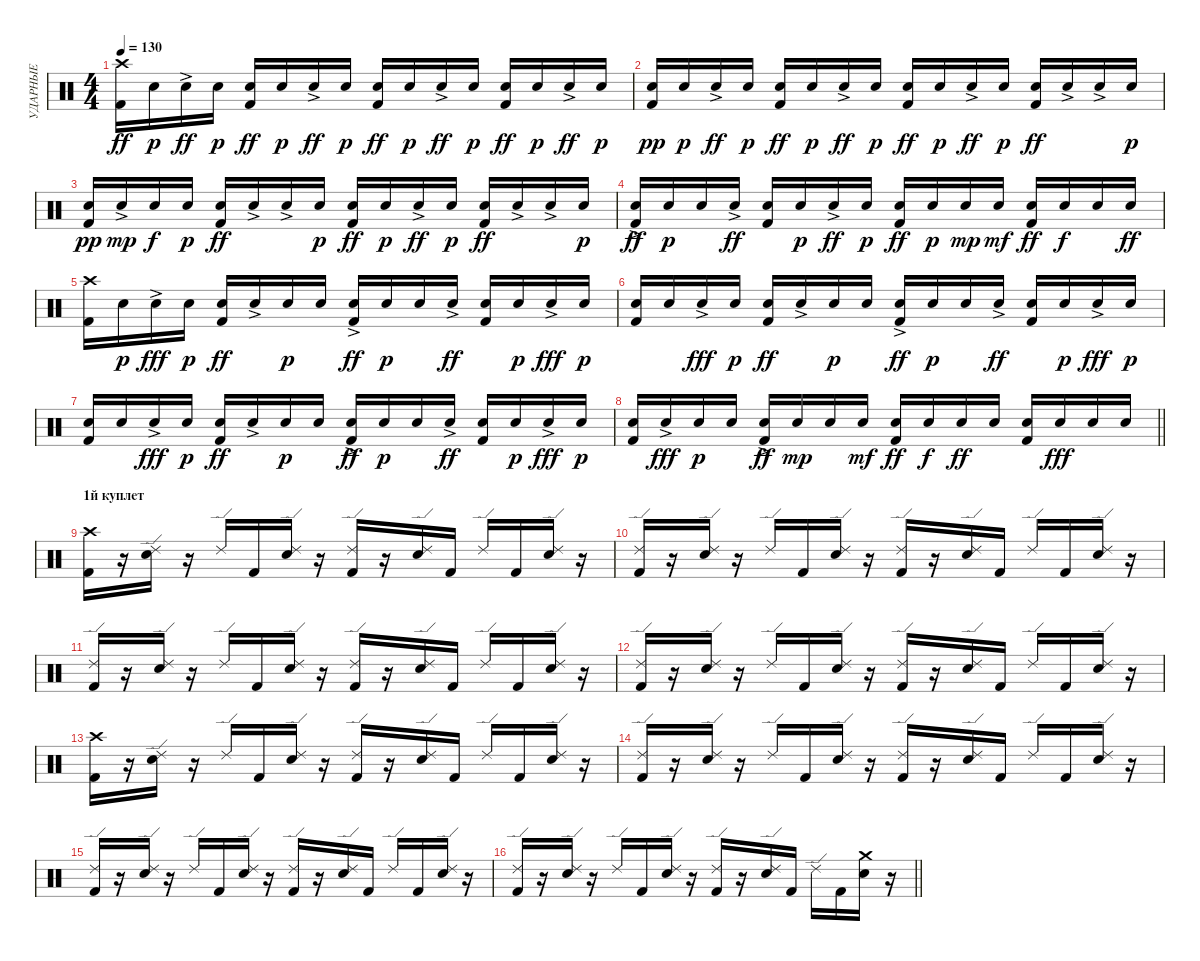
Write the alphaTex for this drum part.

\track ("УДАРНЫЕ" "УДАРНЫЕ") {instrument percussion}
\staff {score}
\articulation defaults
\ts (4 4)
\tempo 130
\clef neutral
\ks c
("Kick (hit) 2" "Crash high (hit)").16{dy ff} "Snare (hit) 2".16{dy p} "Snare (hit) 2"{ac}.16{dy ff} "Snare (hit) 2".16{dy p} ("Snare (hit) 2" "Kick (hit) 2").16{dy ff} "Snare (hit) 2".16{dy p} "Snare (hit) 2"{ac}.16{dy ff} "Snare (hit) 2".16{dy p} ("Snare (hit) 2" "Kick (hit) 2").16{dy ff} "Snare (hit) 2".16{dy p} "Snare (hit) 2"{ac}.16{dy ff} "Snare (hit) 2".16{dy p} ("Snare (hit) 2" "Kick (hit) 2").16{dy ff} "Snare (hit) 2".16{dy p} "Snare (hit) 2"{ac}.16{dy ff} "Snare (hit) 2".16{dy p} |
("Kick (hit) 2" "Snare (hit) 2").16{dy pp} "Snare (hit) 2".16{dy p} "Snare (hit) 2"{ac}.16{dy ff} "Snare (hit) 2".16{dy p} ("Snare (hit) 2" "Kick (hit) 2").16{dy ff} "Snare (hit) 2".16{dy p} "Snare (hit) 2"{ac}.16{dy ff} "Snare (hit) 2".16{dy p} ("Snare (hit) 2" "Kick (hit) 2").16{dy ff} "Snare (hit) 2".16{dy p} "Snare (hit) 2"{ac}.16{dy ff} "Snare (hit) 2".16{dy p} ("Snare (hit) 2" "Kick (hit) 2").16{dy ff} "Snare (hit) 2"{ac}.16 "Snare (hit) 2"{ac}.16 "Snare (hit) 2".16{dy p} |
("Kick (hit) 2" "Snare (hit) 2").16{dy pp} "Snare (hit) 2"{ac}.16{dy mp} "Snare (hit) 2".16{dy f} "Snare (hit) 2".16{dy p} ("Snare (hit) 2" "Kick (hit) 2").16{dy ff} "Snare (hit) 2"{ac}.16 "Snare (hit) 2"{ac}.16 "Snare (hit) 2".16{dy p} ("Snare (hit) 2" "Kick (hit) 2").16{dy ff} "Snare (hit) 2".16{dy p} "Snare (hit) 2"{ac}.16{dy ff} "Snare (hit) 2".16{dy p} ("Snare (hit) 2" "Kick (hit) 2").16{dy ff} "Snare (hit) 2"{ac}.16 "Snare (hit) 2"{ac}.16 "Snare (hit) 2".16{dy p} |
("Kick (hit) 2" "Snare (hit) 2"{ac}).16{dy ff} "Snare (hit) 2".16{dy p} "Snare (hit) 2".16 "Snare (hit) 2"{ac}.16{dy ff} ("Snare (hit) 2" "Kick (hit) 2").16 "Snare (hit) 2".16{dy p} "Snare (hit) 2"{ac}.16{dy ff} "Snare (hit) 2".16{dy p} ("Snare (hit) 2" "Kick (hit) 2").16{dy ff} "Snare (hit) 2".16{dy p} "Snare (hit) 2".16{dy mp} "Snare (hit) 2".16{dy mf} ("Snare (hit) 2" "Kick (hit) 2").16{dy ff} "Snare (hit) 2".16{dy f} "Snare (hit) 2".16 "Snare (hit) 2".16{dy ff} |
("Kick (hit) 2" "Crash high (hit)").16 "Snare (hit) 2".16{dy p} "Snare (hit) 2"{ac}.16{dy fff} "Snare (hit) 2".16{dy p} ("Snare (hit) 2" "Kick (hit) 2").16{dy ff} "Snare (hit) 2"{ac}.16 "Snare (hit) 2".16{dy p} "Snare (hit) 2".16 ("Snare (hit) 2"{ac} "Kick (hit) 2").16{dy ff} "Snare (hit) 2".16{dy p} "Snare (hit) 2".16 "Snare (hit) 2"{ac}.16{dy ff} ("Snare (hit) 2" "Kick (hit) 2").16 "Snare (hit) 2".16{dy p} "Snare (hit) 2"{ac}.16{dy fff} "Snare (hit) 2".16{dy p} |
("Kick (hit) 2" "Snare (hit) 2").16 "Snare (hit) 2".16 "Snare (hit) 2"{ac}.16{dy fff} "Snare (hit) 2".16{dy p} ("Snare (hit) 2" "Kick (hit) 2").16{dy ff} "Snare (hit) 2"{ac}.16 "Snare (hit) 2".16{dy p} "Snare (hit) 2".16 ("Snare (hit) 2"{ac} "Kick (hit) 2").16{dy ff} "Snare (hit) 2".16{dy p} "Snare (hit) 2".16 "Snare (hit) 2"{ac}.16{dy ff} ("Snare (hit) 2" "Kick (hit) 2").16 "Snare (hit) 2".16{dy p} "Snare (hit) 2"{ac}.16{dy fff} "Snare (hit) 2".16{dy p} |
("Kick (hit) 2" "Snare (hit) 2").16 "Snare (hit) 2".16 "Snare (hit) 2"{ac}.16{dy fff} "Snare (hit) 2".16{dy p} ("Snare (hit) 2" "Kick (hit) 2").16{dy ff} "Snare (hit) 2"{ac}.16 "Snare (hit) 2".16{dy p} "Snare (hit) 2".16 ("Snare (hit) 2"{ac} "Kick (hit) 2").16{dy ff} "Snare (hit) 2".16{dy p} "Snare (hit) 2".16 "Snare (hit) 2"{ac}.16{dy ff} ("Snare (hit) 2" "Kick (hit) 2").16 "Snare (hit) 2".16{dy p} "Snare (hit) 2"{ac}.16{dy fff} "Snare (hit) 2".16{dy p} |
\barLineRight lightlight
("Kick (hit) 2" "Snare (hit) 2").16 "Snare (hit) 2"{ac}.16{dy fff} "Snare (hit) 2".16{dy p} "Snare (hit) 2".16 ("Snare (hit) 2"{ac} "Kick (hit) 2").16{dy ff} "Snare (hit) 2".16{dy mp} "Snare (hit) 2".16 "Snare (hit) 2".16{dy mf} ("Snare (hit) 2" "Kick (hit) 2").16{dy ff} "Snare (hit) 2".16{dy f} "Snare (hit) 2".16{dy ff} "Snare (hit) 2".16 ("Snare (hit) 2" "Kick (hit) 2").16 "Snare (hit) 2".16{dy fff} "Snare (hit) 2".16 "Snare (hit) 2".16 |
\section ("" "1й куплет")
("Crash high (hit)" "Kick (hit) 2").16 r.16 ("Snare (hit) 2" "Ride (edge) 2").16 r.16 "Ride (edge) 2".16 "Kick (hit) 2".16 ("Snare (hit) 2" "Ride (edge) 2").16 r.16 ("Kick (hit) 2" "Ride (edge) 2").16 r.16 ("Snare (hit) 2" "Ride (edge) 2").16 "Kick (hit) 2".16 "Ride (edge) 2".16 "Kick (hit) 2".16 ("Snare (hit) 2" "Ride (edge) 2").16 r.16 |
("Ride (edge) 2" "Kick (hit) 2").16 r.16 ("Snare (hit) 2" "Ride (edge) 2").16 r.16 "Ride (edge) 2".16 "Kick (hit) 2".16 ("Snare (hit) 2" "Ride (edge) 2").16 r.16 ("Kick (hit) 2" "Ride (edge) 2").16 r.16 ("Snare (hit) 2" "Ride (edge) 2").16 "Kick (hit) 2".16 "Ride (edge) 2".16 "Kick (hit) 2".16 ("Snare (hit) 2" "Ride (edge) 2").16 r.16 |
("Ride (edge) 2" "Kick (hit) 2").16 r.16 ("Snare (hit) 2" "Ride (edge) 2").16 r.16 "Ride (edge) 2".16 "Kick (hit) 2".16 ("Snare (hit) 2" "Ride (edge) 2").16 r.16 ("Kick (hit) 2" "Ride (edge) 2").16 r.16 ("Snare (hit) 2" "Ride (edge) 2").16 "Kick (hit) 2".16 "Ride (edge) 2".16 "Kick (hit) 2".16 ("Snare (hit) 2" "Ride (edge) 2").16 r.16 |
("Ride (edge) 2" "Kick (hit) 2").16 r.16 ("Snare (hit) 2" "Ride (edge) 2").16 r.16 "Ride (edge) 2".16 "Kick (hit) 2".16 ("Snare (hit) 2" "Ride (edge) 2").16 r.16 ("Kick (hit) 2" "Ride (edge) 2").16 r.16 ("Snare (hit) 2" "Ride (edge) 2").16 "Kick (hit) 2".16 "Ride (edge) 2".16 "Kick (hit) 2".16 ("Snare (hit) 2" "Ride (edge) 2").16 r.16 |
("Crash high (hit)" "Kick (hit) 2").16 r.16 ("Snare (hit) 2" "Ride (edge) 2").16 r.16 "Ride (edge) 2".16 "Kick (hit) 2".16 ("Snare (hit) 2" "Ride (edge) 2").16 r.16 ("Kick (hit) 2" "Ride (edge) 2").16 r.16 ("Snare (hit) 2" "Ride (edge) 2").16 "Kick (hit) 2".16 "Ride (edge) 2".16 "Kick (hit) 2".16 ("Snare (hit) 2" "Ride (edge) 2").16 r.16 |
("Ride (edge) 2" "Kick (hit) 2").16 r.16 ("Snare (hit) 2" "Ride (edge) 2").16 r.16 "Ride (edge) 2".16 "Kick (hit) 2".16 ("Snare (hit) 2" "Ride (edge) 2").16 r.16 ("Kick (hit) 2" "Ride (edge) 2").16 r.16 ("Snare (hit) 2" "Ride (edge) 2").16 "Kick (hit) 2".16 "Ride (edge) 2".16 "Kick (hit) 2".16 ("Snare (hit) 2" "Ride (edge) 2").16 r.16 |
("Ride (edge) 2" "Kick (hit) 2").16 r.16 ("Snare (hit) 2" "Ride (edge) 2").16 r.16 "Ride (edge) 2".16 "Kick (hit) 2".16 ("Snare (hit) 2" "Ride (edge) 2").16 r.16 ("Kick (hit) 2" "Ride (edge) 2").16 r.16 ("Snare (hit) 2" "Ride (edge) 2").16 "Kick (hit) 2".16 "Ride (edge) 2".16 "Kick (hit) 2".16 ("Snare (hit) 2" "Ride (edge) 2").16 r.16 |
\barLineRight lightlight
("Ride (edge) 2" "Kick (hit) 2").16 r.16 ("Snare (hit) 2" "Ride (edge) 2").16 r.16 "Ride (edge) 2".16 "Kick (hit) 2".16 ("Snare (hit) 2" "Ride (edge) 2").16 r.16 ("Kick (hit) 2" "Ride (edge) 2").16 r.16 ("Snare (hit) 2" "Ride (edge) 2").16 "Kick (hit) 2".16 "Ride (edge) 2".16 "Kick (hit) 2".16 ("Snare (hit) 2" "Crash medium (hit)").16 r.16
